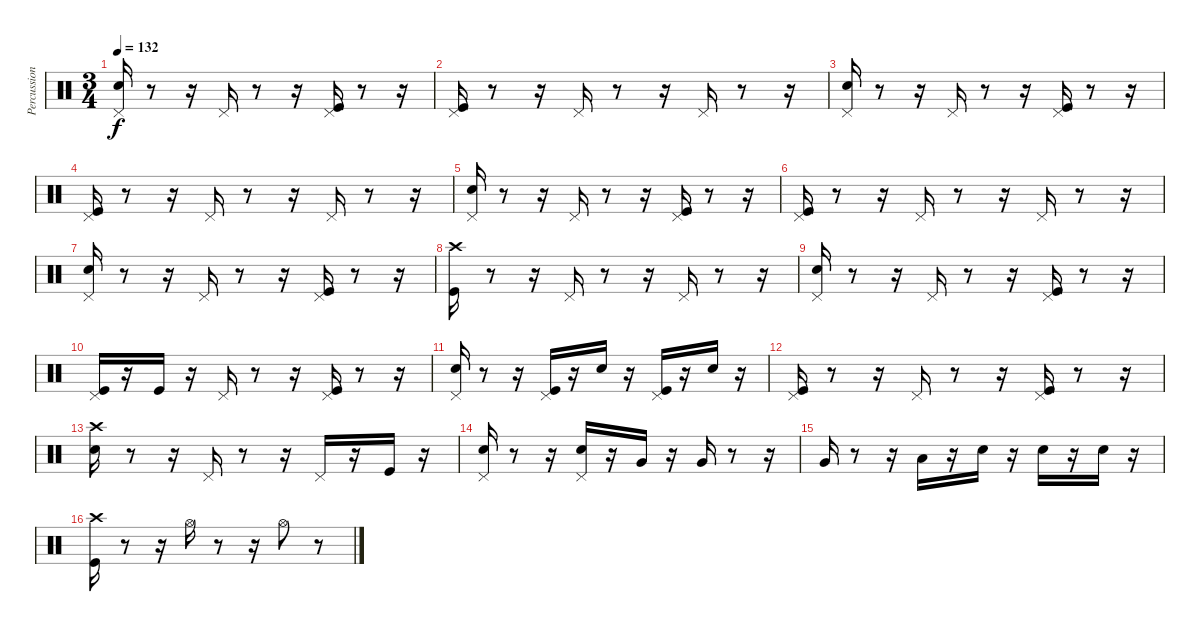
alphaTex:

\track ("Percussion" "Percussion") {instrument percussion}
\staff {score}
\articulation defaults
\ts (3 4)
\tempo 132
\clef neutral
\ks c
("Pedal Hi-Hat (hit)" "Snare (hit) 2").16{dy f} r.8 r.16 "Pedal Hi-Hat (hit)".16 r.8 r.16 ("Pedal Hi-Hat (hit)" "Kick (hit)").16 r.8 r.16 |
("Pedal Hi-Hat (hit)" "Kick (hit)").16 r.8 r.16 "Pedal Hi-Hat (hit)".16 r.8 r.16 "Pedal Hi-Hat (hit)".16 r.8 r.16 |
("Pedal Hi-Hat (hit)" "Snare (hit) 2").16 r.8 r.16 "Pedal Hi-Hat (hit)".16 r.8 r.16 ("Pedal Hi-Hat (hit)" "Kick (hit)").16 r.8 r.16 |
("Pedal Hi-Hat (hit)" "Kick (hit)").16 r.8 r.16 "Pedal Hi-Hat (hit)".16 r.8 r.16 "Pedal Hi-Hat (hit)".16 r.8 r.16 |
("Pedal Hi-Hat (hit)" "Snare (hit) 2").16 r.8 r.16 "Pedal Hi-Hat (hit)".16 r.8 r.16 ("Pedal Hi-Hat (hit)" "Kick (hit)").16 r.8 r.16 |
("Pedal Hi-Hat (hit)" "Kick (hit)").16 r.8 r.16 "Pedal Hi-Hat (hit)".16 r.8 r.16 "Pedal Hi-Hat (hit)".16 r.8 r.16 |
("Pedal Hi-Hat (hit)" "Snare (hit) 2").16 r.8 r.16 "Pedal Hi-Hat (hit)".16 r.8 r.16 ("Pedal Hi-Hat (hit)" "Kick (hit)").16 r.8 r.16 |
("Kick (hit)" "Crash high (hit)").16 r.8 r.16 "Pedal Hi-Hat (hit)".16 r.8 r.16 "Pedal Hi-Hat (hit)".16 r.8 r.16 |
("Pedal Hi-Hat (hit)" "Snare (hit) 2").16 r.8 r.16 "Pedal Hi-Hat (hit)".16 r.8 r.16 ("Pedal Hi-Hat (hit)" "Kick (hit)").16 r.8 r.16 |
("Pedal Hi-Hat (hit)" "Kick (hit)").16 r.16 "Kick (hit)".16 r.16 "Pedal Hi-Hat (hit)".16 r.8 r.16 ("Pedal Hi-Hat (hit)" "Kick (hit)").16 r.8 r.16 |
("Pedal Hi-Hat (hit)" "Snare (hit) 2").16 r.8 r.16 ("Pedal Hi-Hat (hit)" "Kick (hit)").16 r.16 "Snare (hit) 2".16 r.16 ("Pedal Hi-Hat (hit)" "Kick (hit)").16 r.16 "Snare (hit) 2".16 r.16 |
("Kick (hit)" "Pedal Hi-Hat (hit)").16 r.8 r.16 "Pedal Hi-Hat (hit)".16 r.8 r.16 ("Pedal Hi-Hat (hit)" "Kick (hit)").16 r.8 r.16 |
("Snare (hit) 2" "Crash high (hit)").16 r.8 r.16 "Pedal Hi-Hat (hit)".16 r.8 r.16 "Pedal Hi-Hat (hit)".16 r.16 "Kick (hit)".16 r.16 |
("Pedal Hi-Hat (hit)" "Snare (hit) 2").16 r.8 r.16 ("Pedal Hi-Hat (hit)" "Snare (hit) 2").16 r.16 "Very Low Tom (hit)".16 r.16 "Very Low Tom (hit)".16 r.8 r.16 |
"Very Low Tom (hit)".16 r.8 r.16 "Low Floor Tom (hit)".16 r.16 "Snare (hit) 2".16 r.16 "Snare (hit) 2".16 r.16 "Snare (hit) 2".16 r.16 |
("Kick (hit)" "Crash high (hit)").16 r.8 r.16 "Hi-Hat (open)".16 r.8 r.16 "Hi-Hat (open)".8 r.8
